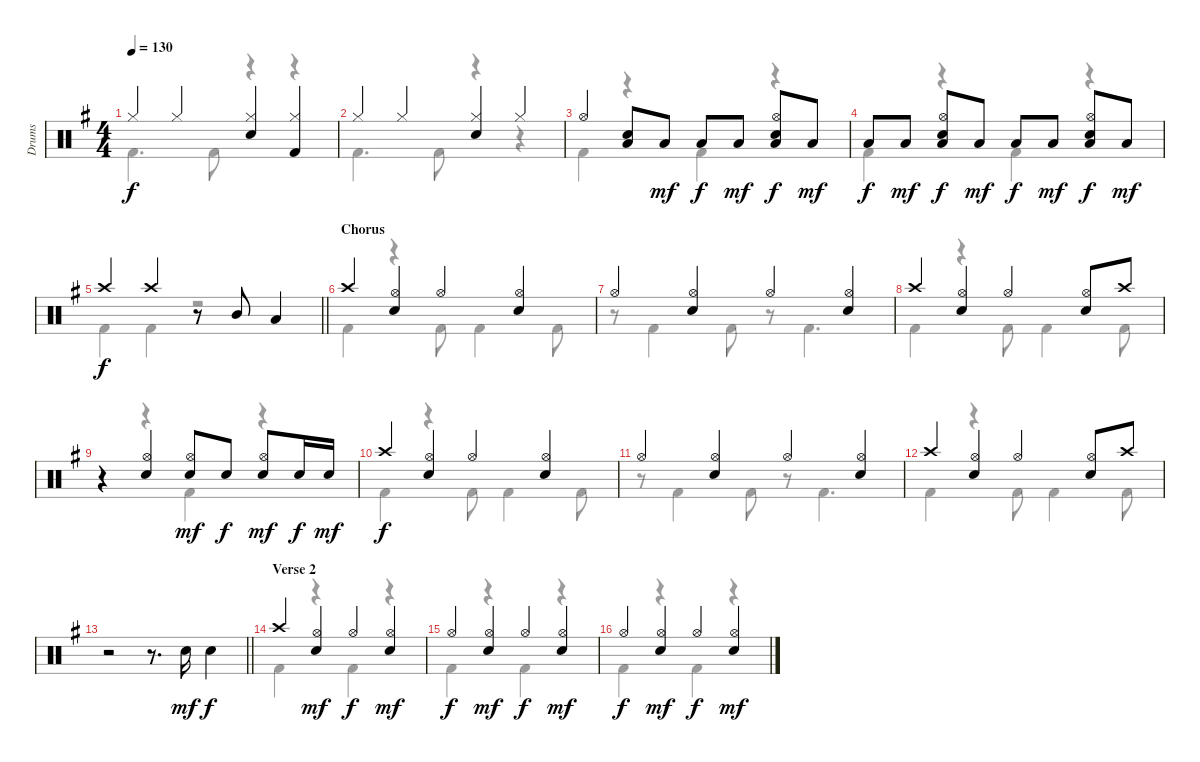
\track ("Drums" "Drums") {instrument percussion}
\staff {score}
\articulation defaults
\voice
\ts (4 4)
\tempo 130
\clef neutral
\ks g "Hi-Hat (closed)".4{dy f} "Hi-Hat (closed)".4
("Hi-Hat (closed)" "Electric Snare (hit)").4 ("Hi-Hat (closed)" "Kick (hit) 2").4 |
"Hi-Hat (closed)".4 "Hi-Hat (closed)".4 ("Hi-Hat (closed)" "Electric Snare (hit)").4 "Hi-Hat (closed)".4 |
"Hi-Hat (open)".4 ("Low Floor Tom (hit)" "Electric Snare (hit)").8 "Low Floor Tom (hit)".8{dy mf} "Low Floor Tom (hit)".8{dy f} "Low Floor Tom (hit)".8{dy mf} ("Low Floor Tom (hit)" "Hi-Hat (open)" "Electric Snare (hit)").8{dy f} "Low Floor Tom (hit)".8{dy mf} |
"Low Floor Tom (hit)".8{dy f} "Low Floor Tom (hit)".8{dy mf} ("Low Floor Tom (hit)" "Hi-Hat (open)" "Electric Snare (hit)").8{dy f} "Low Floor Tom (hit)".8{dy mf} "Low Floor Tom (hit)".8{dy f} "Low Floor Tom (hit)".8{dy mf} ("Low Floor Tom (hit)" "Hi-Hat (open)" "Electric Snare (hit)").8{dy f} "Low Floor Tom (hit)".8{dy mf} |
\barLineRight lightlight "Crash high (hit)".4{dy f} "Crash high (hit)".4
r.8 "Mid Tom (hit)".8 "Low Tom (hit)".4 |
\section ("" "Chorus")
"Crash high (hit)".4 ("Hi-Hat (open)" "Electric Snare (hit)").4 "Hi-Hat (open)".4 ("Hi-Hat (open)" "Electric Snare (hit)").4 |
"Hi-Hat (open)".4 ("Hi-Hat (open)" "Electric Snare (hit)").4 "Hi-Hat (open)".4 ("Hi-Hat (open)" "Electric Snare (hit)").4 |
"Crash high (hit)".4 ("Hi-Hat (open)" "Electric Snare (hit)").4 "Hi-Hat (open)".4 ("Hi-Hat (open)" "Electric Snare (hit)").8 "Crash high (hit)".8 |
r.4 ("Hi-Hat (open)" "Electric Snare (hit)").4 ("Hi-Hat (open)" "Electric Snare (hit)").8{dy mf} "Electric Snare (hit)".8{dy f} ("Hi-Hat (open)" "Electric Snare (hit)").8{dy mf} "Electric Snare (hit)".16{dy f} "Electric Snare (hit)".16{dy mf} |
"Crash high (hit)".4{dy f} ("Hi-Hat (open)" "Electric Snare (hit)").4 "Hi-Hat (open)".4 ("Hi-Hat (open)" "Electric Snare (hit)").4 |
"Hi-Hat (open)".4 ("Hi-Hat (open)" "Electric Snare (hit)").4 "Hi-Hat (open)".4 ("Hi-Hat (open)" "Electric Snare (hit)").4 |
"Crash high (hit)".4 ("Hi-Hat (open)" "Electric Snare (hit)").4 "Hi-Hat (open)".4 ("Hi-Hat (open)" "Electric Snare (hit)").8 "Crash high (hit)".8 |
\barLineRight lightlight
r.2 r.8{d} "Electric Snare (hit)".16{dy mf} "Electric Snare (hit)".4{dy f} |
\section ("" "Verse 2")
"Crash high (hit)".4 ("Hi-Hat (open)" "Electric Snare (hit)").4{dy mf} "Hi-Hat (open)".4{dy f} ("Hi-Hat (open)" "Electric Snare (hit)").4{dy mf} |
"Hi-Hat (open)".4{dy f} ("Hi-Hat (open)" "Electric Snare (hit)").4{dy mf} "Hi-Hat (open)".4{dy f} ("Hi-Hat (open)" "Electric Snare (hit)").4{dy mf} |
"Hi-Hat (open)".4{dy f} ("Hi-Hat (open)" "Electric Snare (hit)").4{dy mf} "Hi-Hat (open)".4{dy f} ("Hi-Hat (open)" "Electric Snare (hit)").4{dy mf}
\voice
\clef neutral
\ottava regular
\simile none
\ks g "Kick (hit) 2".4{d dy f} "Kick (hit) 2".8
r.4 r.4 |
"Kick (hit) 2".4{d} "Kick (hit) 2".8 r.4 r.4 |
"Kick (hit) 2".4 r.4 "Kick (hit) 2".4 r.4 |
"Kick (hit) 2".4 r.4 "Kick (hit) 2".4 r.4 |
\barLineRight lightlight "Kick (hit) 2".4 "Kick (hit) 2".4
r.2 |
"Kick (hit) 2".4 r.4 "Kick (hit) 2".8 "Kick (hit) 2".4 "Kick (hit) 2".8 |
r.8 "Kick (hit) 2".4 "Kick (hit) 2".8 r.8 "Kick (hit) 2".4{d} |
"Kick (hit) 2".4 r.4 "Kick (hit) 2".8 "Kick (hit) 2".4 "Kick (hit) 2".8 |
r.4 r.4 "Kick (hit) 2".4{dy mf} r.4 |
"Kick (hit) 2".4{dy f} r.4 "Kick (hit) 2".8 "Kick (hit) 2".4 "Kick (hit) 2".8 |
r.8 "Kick (hit) 2".4 "Kick (hit) 2".8 r.8 "Kick (hit) 2".4{d} |
"Kick (hit) 2".4 r.4 "Kick (hit) 2".8 "Kick (hit) 2".4 "Kick (hit) 2".8 |
\barLineRight lightlight
|
"Kick (hit) 2".4 r.4 "Kick (hit) 2".4 r.4 |
"Kick (hit) 2".4 r.4 "Kick (hit) 2".4 r.4 |
"Kick (hit) 2".4 r.4 "Kick (hit) 2".4 r.4
